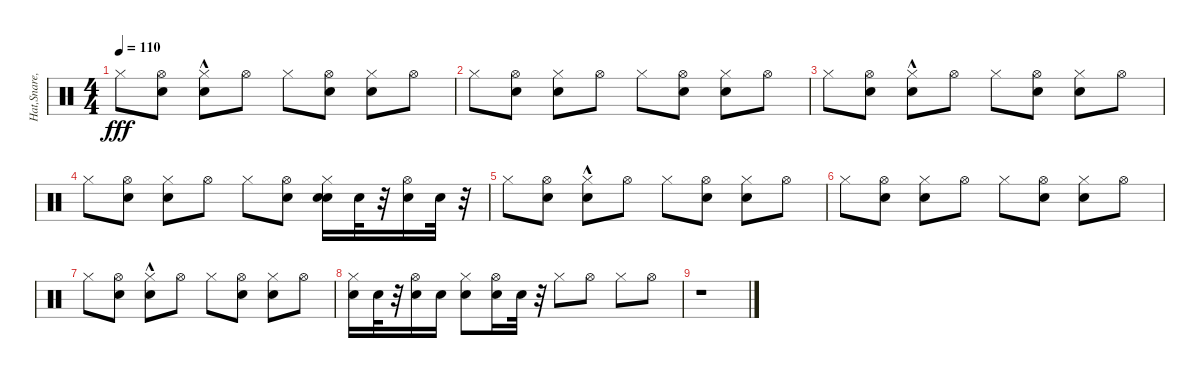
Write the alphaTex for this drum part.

\track ("Hat,Snare,Clap" "Hat,Snare,") {instrument percussion}
\staff {score}
\articulation defaults
\ts (4 4)
\tempo 110
\clef neutral
\ks c "Hi-Hat (closed)".8{dy fff}
("Hi-Hat (open)" "Electric Snare (hit)").8 ("Hi-Hat (closed)" "Hand Clap (hit)"{hac}).8 "Hi-Hat (open)".8 "Hi-Hat (closed)".8 ("Hi-Hat (open)" "Electric Snare (hit)").8 ("Hi-Hat (closed)" "Hand Clap (hit)").8 "Hi-Hat (open)".8 |
"Hi-Hat (closed)".8 ("Hi-Hat (open)" "Electric Snare (hit)").8 ("Hand Clap (hit)" "Hi-Hat (closed)").8 "Hi-Hat (open)".8 "Hi-Hat (closed)".8 ("Hi-Hat (open)" "Electric Snare (hit)").8 ("Hi-Hat (closed)" "Hand Clap (hit)").8 "Hi-Hat (open)".8 |
"Hi-Hat (closed)".8 ("Hi-Hat (open)" "Electric Snare (hit)").8 ("Hi-Hat (closed)" "Hand Clap (hit)"{hac}).8 "Hi-Hat (open)".8 "Hi-Hat (closed)".8 ("Hi-Hat (open)" "Electric Snare (hit)").8 ("Hi-Hat (closed)" "Hand Clap (hit)").8 "Hi-Hat (open)".8 |
"Hi-Hat (closed)".8 ("Hi-Hat (open)" "Electric Snare (hit)").8 ("Hi-Hat (closed)" "Hand Clap (hit)").8 "Hi-Hat (open)".8 "Hi-Hat (closed)".8 ("Hi-Hat (open)" "Electric Snare (hit)").8 ("Hi-Hat (closed)" "Electric Snare (hit)" "Hand Clap (hit)").16 "Electric Snare (hit)".32 r.32 ("Hi-Hat (open)" "Electric Snare (hit)").16 "Electric Snare (hit)".32 r.32 |
"Hi-Hat (closed)".8 ("Hi-Hat (open)" "Electric Snare (hit)").8 ("Hi-Hat (closed)" "Hand Clap (hit)"{hac}).8 "Hi-Hat (open)".8 "Hi-Hat (closed)".8 ("Hi-Hat (open)" "Electric Snare (hit)").8 ("Hi-Hat (closed)" "Hand Clap (hit)").8 "Hi-Hat (open)".8 |
"Hi-Hat (closed)".8 ("Hi-Hat (open)" "Electric Snare (hit)").8 ("Hi-Hat (closed)" "Hand Clap (hit)").8 "Hi-Hat (open)".8 "Hi-Hat (closed)".8 ("Hi-Hat (open)" "Electric Snare (hit)").8 ("Hi-Hat (closed)" "Hand Clap (hit)").8 "Hi-Hat (open)".8 |
"Hi-Hat (closed)".8 ("Hi-Hat (open)" "Electric Snare (hit)").8 ("Hand Clap (hit)"{hac} "Hi-Hat (closed)").8 "Hi-Hat (open)".8 "Hi-Hat (closed)".8 ("Hi-Hat (open)" "Electric Snare (hit)").8 ("Hi-Hat (closed)" "Hand Clap (hit)").8 "Hi-Hat (open)".8 |
("Hi-Hat (closed)" "Electric Snare (hit)").16 "Electric Snare (hit)".32 r.32 ("Hi-Hat (open)" "Electric Snare (hit)").16 "Electric Snare (hit)".16 ("Hi-Hat (closed)" "Electric Snare (hit)").8 ("Hi-Hat (open)" "Electric Snare (hit)").16 "Electric Snare (hit)".32 r.32 "Hi-Hat (closed)".8 "Hi-Hat (open)".8 "Hi-Hat (closed)".8 "Hi-Hat (open)".8 |
r.1
